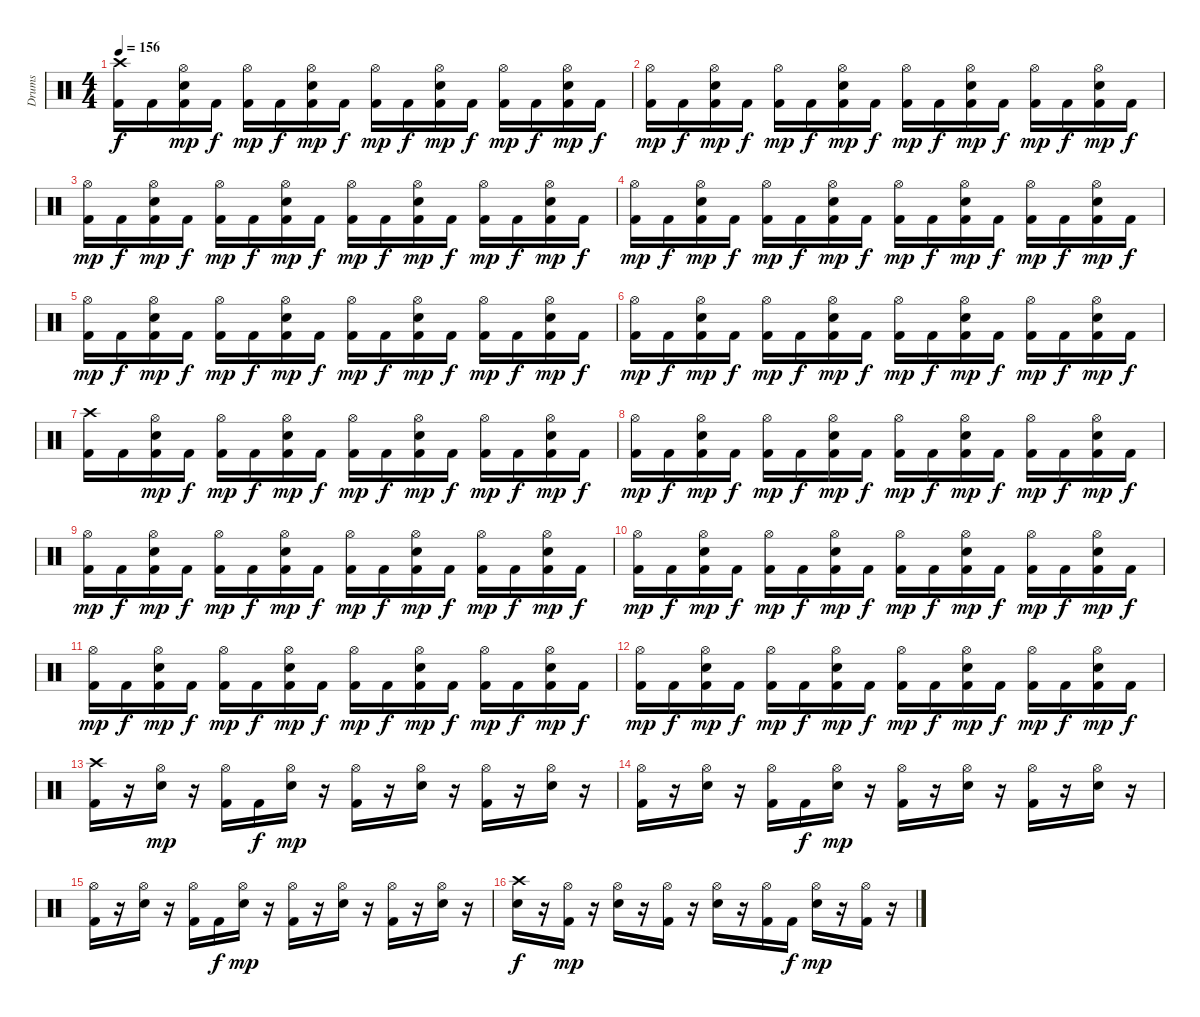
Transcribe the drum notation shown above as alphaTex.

\track ("Drums" "Drums") {instrument percussion}
\staff {score}
\articulation defaults
\ts (4 4)
\tempo 156
\clef neutral
\ks c
("Kick (hit) 2" "Crash high (hit)").16{dy f} "Kick (hit) 2".16 ("Snare (hit) 2" "Kick (hit) 2" "Hi-Hat (open)").16{dy mp} "Kick (hit) 2".16{dy f} ("Kick (hit) 2" "Hi-Hat (open)").16{dy mp} "Kick (hit) 2".16{dy f} ("Snare (hit) 2" "Kick (hit) 2" "Hi-Hat (open)").16{dy mp} "Kick (hit) 2".16{dy f} ("Kick (hit) 2" "Hi-Hat (open)").16{dy mp} "Kick (hit) 2".16{dy f} ("Snare (hit) 2" "Kick (hit) 2" "Hi-Hat (open)").16{dy mp} "Kick (hit) 2".16{dy f} ("Kick (hit) 2" "Hi-Hat (open)").16{dy mp} "Kick (hit) 2".16{dy f} ("Snare (hit) 2" "Kick (hit) 2" "Hi-Hat (open)").16{dy mp} "Kick (hit) 2".16{dy f} |
("Kick (hit) 2" "Hi-Hat (open)").16{dy mp} "Kick (hit) 2".16{dy f} ("Snare (hit) 2" "Kick (hit) 2" "Hi-Hat (open)").16{dy mp} "Kick (hit) 2".16{dy f} ("Kick (hit) 2" "Hi-Hat (open)").16{dy mp} "Kick (hit) 2".16{dy f} ("Snare (hit) 2" "Kick (hit) 2" "Hi-Hat (open)").16{dy mp} "Kick (hit) 2".16{dy f} ("Kick (hit) 2" "Hi-Hat (open)").16{dy mp} "Kick (hit) 2".16{dy f} ("Snare (hit) 2" "Kick (hit) 2" "Hi-Hat (open)").16{dy mp} "Kick (hit) 2".16{dy f} ("Kick (hit) 2" "Hi-Hat (open)").16{dy mp} "Kick (hit) 2".16{dy f} ("Snare (hit) 2" "Kick (hit) 2" "Hi-Hat (open)").16{dy mp} "Kick (hit) 2".16{dy f} |
("Kick (hit) 2" "Hi-Hat (open)").16{dy mp} "Kick (hit) 2".16{dy f} ("Snare (hit) 2" "Kick (hit) 2" "Hi-Hat (open)").16{dy mp} "Kick (hit) 2".16{dy f} ("Kick (hit) 2" "Hi-Hat (open)").16{dy mp} "Kick (hit) 2".16{dy f} ("Snare (hit) 2" "Kick (hit) 2" "Hi-Hat (open)").16{dy mp} "Kick (hit) 2".16{dy f} ("Kick (hit) 2" "Hi-Hat (open)").16{dy mp} "Kick (hit) 2".16{dy f} ("Snare (hit) 2" "Kick (hit) 2" "Hi-Hat (open)").16{dy mp} "Kick (hit) 2".16{dy f} ("Kick (hit) 2" "Hi-Hat (open)").16{dy mp} "Kick (hit) 2".16{dy f} ("Snare (hit) 2" "Kick (hit) 2" "Hi-Hat (open)").16{dy mp} "Kick (hit) 2".16{dy f} |
("Kick (hit) 2" "Hi-Hat (open)").16{dy mp} "Kick (hit) 2".16{dy f} ("Snare (hit) 2" "Kick (hit) 2" "Hi-Hat (open)").16{dy mp} "Kick (hit) 2".16{dy f} ("Kick (hit) 2" "Hi-Hat (open)").16{dy mp} "Kick (hit) 2".16{dy f} ("Snare (hit) 2" "Kick (hit) 2" "Hi-Hat (open)").16{dy mp} "Kick (hit) 2".16{dy f} ("Kick (hit) 2" "Hi-Hat (open)").16{dy mp} "Kick (hit) 2".16{dy f} ("Snare (hit) 2" "Kick (hit) 2" "Hi-Hat (open)").16{dy mp} "Kick (hit) 2".16{dy f} ("Kick (hit) 2" "Hi-Hat (open)").16{dy mp} "Kick (hit) 2".16{dy f} ("Snare (hit) 2" "Kick (hit) 2" "Hi-Hat (open)").16{dy mp} "Kick (hit) 2".16{dy f} |
("Kick (hit) 2" "Hi-Hat (open)").16{dy mp} "Kick (hit) 2".16{dy f} ("Snare (hit) 2" "Kick (hit) 2" "Hi-Hat (open)").16{dy mp} "Kick (hit) 2".16{dy f} ("Kick (hit) 2" "Hi-Hat (open)").16{dy mp} "Kick (hit) 2".16{dy f} ("Snare (hit) 2" "Kick (hit) 2" "Hi-Hat (open)").16{dy mp} "Kick (hit) 2".16{dy f} ("Kick (hit) 2" "Hi-Hat (open)").16{dy mp} "Kick (hit) 2".16{dy f} ("Snare (hit) 2" "Kick (hit) 2" "Hi-Hat (open)").16{dy mp} "Kick (hit) 2".16{dy f} ("Kick (hit) 2" "Hi-Hat (open)").16{dy mp} "Kick (hit) 2".16{dy f} ("Snare (hit) 2" "Kick (hit) 2" "Hi-Hat (open)").16{dy mp} "Kick (hit) 2".16{dy f} |
("Kick (hit) 2" "Hi-Hat (open)").16{dy mp} "Kick (hit) 2".16{dy f} ("Snare (hit) 2" "Kick (hit) 2" "Hi-Hat (open)").16{dy mp} "Kick (hit) 2".16{dy f} ("Kick (hit) 2" "Hi-Hat (open)").16{dy mp} "Kick (hit) 2".16{dy f} ("Snare (hit) 2" "Kick (hit) 2" "Hi-Hat (open)").16{dy mp} "Kick (hit) 2".16{dy f} ("Kick (hit) 2" "Hi-Hat (open)").16{dy mp} "Kick (hit) 2".16{dy f} ("Snare (hit) 2" "Kick (hit) 2" "Hi-Hat (open)").16{dy mp} "Kick (hit) 2".16{dy f} ("Kick (hit) 2" "Hi-Hat (open)").16{dy mp} "Kick (hit) 2".16{dy f} ("Snare (hit) 2" "Kick (hit) 2" "Hi-Hat (open)").16{dy mp} "Kick (hit) 2".16{dy f} |
("Kick (hit) 2" "Crash high (hit)").16 "Kick (hit) 2".16 ("Snare (hit) 2" "Kick (hit) 2" "Hi-Hat (open)").16{dy mp} "Kick (hit) 2".16{dy f} ("Kick (hit) 2" "Hi-Hat (open)").16{dy mp} "Kick (hit) 2".16{dy f} ("Snare (hit) 2" "Kick (hit) 2" "Hi-Hat (open)").16{dy mp} "Kick (hit) 2".16{dy f} ("Kick (hit) 2" "Hi-Hat (open)").16{dy mp} "Kick (hit) 2".16{dy f} ("Snare (hit) 2" "Kick (hit) 2" "Hi-Hat (open)").16{dy mp} "Kick (hit) 2".16{dy f} ("Kick (hit) 2" "Hi-Hat (open)").16{dy mp} "Kick (hit) 2".16{dy f} ("Snare (hit) 2" "Kick (hit) 2" "Hi-Hat (open)").16{dy mp} "Kick (hit) 2".16{dy f} |
("Kick (hit) 2" "Hi-Hat (open)").16{dy mp} "Kick (hit) 2".16{dy f} ("Snare (hit) 2" "Kick (hit) 2" "Hi-Hat (open)").16{dy mp} "Kick (hit) 2".16{dy f} ("Kick (hit) 2" "Hi-Hat (open)").16{dy mp} "Kick (hit) 2".16{dy f} ("Snare (hit) 2" "Kick (hit) 2" "Hi-Hat (open)").16{dy mp} "Kick (hit) 2".16{dy f} ("Kick (hit) 2" "Hi-Hat (open)").16{dy mp} "Kick (hit) 2".16{dy f} ("Snare (hit) 2" "Kick (hit) 2" "Hi-Hat (open)").16{dy mp} "Kick (hit) 2".16{dy f} ("Kick (hit) 2" "Hi-Hat (open)").16{dy mp} "Kick (hit) 2".16{dy f} ("Snare (hit) 2" "Kick (hit) 2" "Hi-Hat (open)").16{dy mp} "Kick (hit) 2".16{dy f} |
("Kick (hit) 2" "Hi-Hat (open)").16{dy mp} "Kick (hit) 2".16{dy f} ("Snare (hit) 2" "Kick (hit) 2" "Hi-Hat (open)").16{dy mp} "Kick (hit) 2".16{dy f} ("Kick (hit) 2" "Hi-Hat (open)").16{dy mp} "Kick (hit) 2".16{dy f} ("Snare (hit) 2" "Kick (hit) 2" "Hi-Hat (open)").16{dy mp} "Kick (hit) 2".16{dy f} ("Kick (hit) 2" "Hi-Hat (open)").16{dy mp} "Kick (hit) 2".16{dy f} ("Snare (hit) 2" "Kick (hit) 2" "Hi-Hat (open)").16{dy mp} "Kick (hit) 2".16{dy f} ("Kick (hit) 2" "Hi-Hat (open)").16{dy mp} "Kick (hit) 2".16{dy f} ("Snare (hit) 2" "Kick (hit) 2" "Hi-Hat (open)").16{dy mp} "Kick (hit) 2".16{dy f} |
("Kick (hit) 2" "Hi-Hat (open)").16{dy mp} "Kick (hit) 2".16{dy f} ("Snare (hit) 2" "Kick (hit) 2" "Hi-Hat (open)").16{dy mp} "Kick (hit) 2".16{dy f} ("Kick (hit) 2" "Hi-Hat (open)").16{dy mp} "Kick (hit) 2".16{dy f} ("Snare (hit) 2" "Kick (hit) 2" "Hi-Hat (open)").16{dy mp} "Kick (hit) 2".16{dy f} ("Kick (hit) 2" "Hi-Hat (open)").16{dy mp} "Kick (hit) 2".16{dy f} ("Snare (hit) 2" "Kick (hit) 2" "Hi-Hat (open)").16{dy mp} "Kick (hit) 2".16{dy f} ("Kick (hit) 2" "Hi-Hat (open)").16{dy mp} "Kick (hit) 2".16{dy f} ("Snare (hit) 2" "Kick (hit) 2" "Hi-Hat (open)").16{dy mp} "Kick (hit) 2".16{dy f} |
("Kick (hit) 2" "Hi-Hat (open)").16{dy mp} "Kick (hit) 2".16{dy f} ("Snare (hit) 2" "Kick (hit) 2" "Hi-Hat (open)").16{dy mp} "Kick (hit) 2".16{dy f} ("Kick (hit) 2" "Hi-Hat (open)").16{dy mp} "Kick (hit) 2".16{dy f} ("Snare (hit) 2" "Kick (hit) 2" "Hi-Hat (open)").16{dy mp} "Kick (hit) 2".16{dy f} ("Kick (hit) 2" "Hi-Hat (open)").16{dy mp} "Kick (hit) 2".16{dy f} ("Snare (hit) 2" "Kick (hit) 2" "Hi-Hat (open)").16{dy mp} "Kick (hit) 2".16{dy f} ("Kick (hit) 2" "Hi-Hat (open)").16{dy mp} "Kick (hit) 2".16{dy f} ("Snare (hit) 2" "Kick (hit) 2" "Hi-Hat (open)").16{dy mp} "Kick (hit) 2".16{dy f} |
("Kick (hit) 2" "Hi-Hat (open)").16{dy mp} "Kick (hit) 2".16{dy f} ("Snare (hit) 2" "Kick (hit) 2" "Hi-Hat (open)").16{dy mp} "Kick (hit) 2".16{dy f} ("Kick (hit) 2" "Hi-Hat (open)").16{dy mp} "Kick (hit) 2".16{dy f} ("Snare (hit) 2" "Kick (hit) 2" "Hi-Hat (open)").16{dy mp} "Kick (hit) 2".16{dy f} ("Kick (hit) 2" "Hi-Hat (open)").16{dy mp} "Kick (hit) 2".16{dy f} ("Snare (hit) 2" "Kick (hit) 2" "Hi-Hat (open)").16{dy mp} "Kick (hit) 2".16{dy f} ("Kick (hit) 2" "Hi-Hat (open)").16{dy mp} "Kick (hit) 2".16{dy f} ("Snare (hit) 2" "Kick (hit) 2" "Hi-Hat (open)").16{dy mp} "Kick (hit) 2".16{dy f} |
("Kick (hit) 2" "Crash high (hit)").16 r.16 ("Snare (hit) 2" "Hi-Hat (open)").16{dy mp} r.16 ("Kick (hit) 2" "Hi-Hat (open)").16 "Kick (hit) 2".16{dy f} ("Snare (hit) 2" "Hi-Hat (open)").16{dy mp} r.16 ("Kick (hit) 2" "Hi-Hat (open)").16 r.16 ("Snare (hit) 2" "Hi-Hat (open)").16 r.16 ("Kick (hit) 2" "Hi-Hat (open)").16 r.16 ("Snare (hit) 2" "Hi-Hat (open)").16 r.16 |
("Kick (hit) 2" "Hi-Hat (open)").16 r.16 ("Snare (hit) 2" "Hi-Hat (open)").16 r.16 ("Kick (hit) 2" "Hi-Hat (open)").16 "Kick (hit) 2".16{dy f} ("Snare (hit) 2" "Hi-Hat (open)").16{dy mp} r.16 ("Kick (hit) 2" "Hi-Hat (open)").16 r.16 ("Snare (hit) 2" "Hi-Hat (open)").16 r.16 ("Kick (hit) 2" "Hi-Hat (open)").16 r.16 ("Snare (hit) 2" "Hi-Hat (open)").16 r.16 |
("Kick (hit) 2" "Hi-Hat (open)").16 r.16 ("Snare (hit) 2" "Hi-Hat (open)").16 r.16 ("Kick (hit) 2" "Hi-Hat (open)").16 "Kick (hit) 2".16{dy f} ("Snare (hit) 2" "Hi-Hat (open)").16{dy mp} r.16 ("Kick (hit) 2" "Hi-Hat (open)").16 r.16 ("Snare (hit) 2" "Hi-Hat (open)").16 r.16 ("Kick (hit) 2" "Hi-Hat (open)").16 r.16 ("Snare (hit) 2" "Hi-Hat (open)").16 r.16 |
("Snare (hit) 2" "Crash high (hit)").16{dy f} r.16 ("Kick (hit) 2" "Hi-Hat (open)").16{dy mp} r.16 ("Snare (hit) 2" "Hi-Hat (open)").16 r.16 ("Kick (hit) 2" "Hi-Hat (open)").16 r.16 ("Snare (hit) 2" "Hi-Hat (open)").16 r.16 ("Kick (hit) 2" "Hi-Hat (open)").16 "Kick (hit) 2".16{dy f} ("Snare (hit) 2" "Hi-Hat (open)").16{dy mp} r.16 ("Kick (hit) 2" "Hi-Hat (open)").16 r.16
